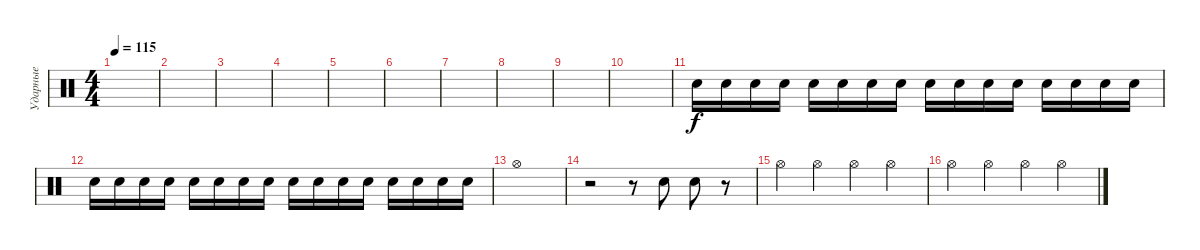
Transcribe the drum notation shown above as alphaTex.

\track ("Ударные" "Ударные") {instrument percussion}
\staff {score}
\articulation defaults
\ts (4 4)
\tempo 115
\clef neutral
\ks c
|
|
|
|
|
|
|
|
|
|
"Electric Snare (hit)".16 "Electric Snare (hit)".16 "Electric Snare (hit)".16 "Electric Snare (hit)".16 "Electric Snare (hit)".16 "Electric Snare (hit)".16 "Electric Snare (hit)".16 "Electric Snare (hit)".16 "Electric Snare (hit)".16 "Electric Snare (hit)".16 "Electric Snare (hit)".16 "Electric Snare (hit)".16 "Electric Snare (hit)".16 "Electric Snare (hit)".16 "Electric Snare (hit)".16 "Electric Snare (hit)".16 |
"Electric Snare (hit)".16 "Electric Snare (hit)".16 "Electric Snare (hit)".16 "Electric Snare (hit)".16 "Electric Snare (hit)".16 "Electric Snare (hit)".16 "Electric Snare (hit)".16 "Electric Snare (hit)".16 "Electric Snare (hit)".16 "Electric Snare (hit)".16 "Electric Snare (hit)".16 "Electric Snare (hit)".16 "Electric Snare (hit)".16 "Electric Snare (hit)".16 "Electric Snare (hit)".16 "Electric Snare (hit)".16 |
"Hi-Hat (open)".1 |
r.2 r.8 "Electric Snare (hit)".8 "Electric Snare (hit)".8 r.8 |
"Hi-Hat (open)".4 "Hi-Hat (open)".4 "Hi-Hat (open)".4 "Hi-Hat (open)".4 |
"Hi-Hat (open)".4 "Hi-Hat (open)".4 "Hi-Hat (open)".4 "Hi-Hat (open)".4
